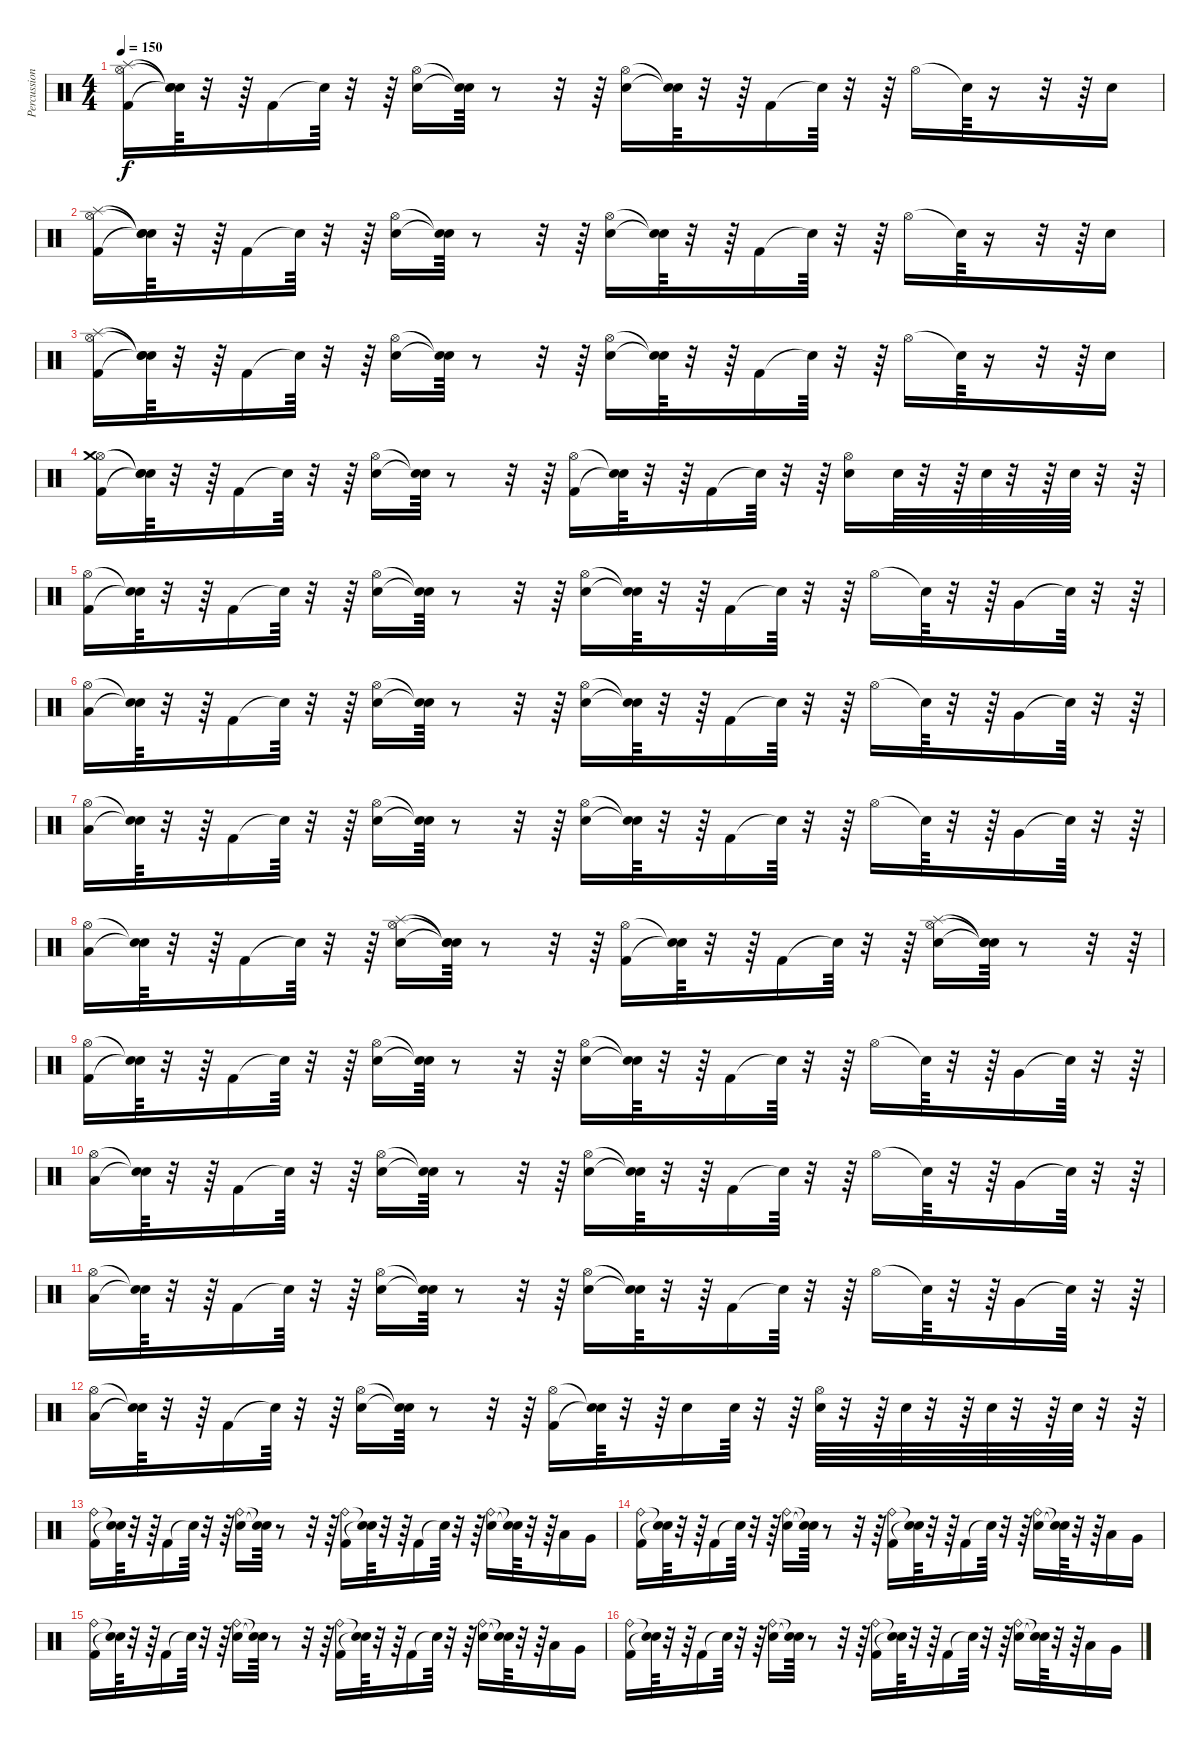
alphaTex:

\track ("Percussions" "Percussion") {instrument percussion}
\staff {score}
\articulation defaults
\ts (4 4)
\tempo 150
\clef neutral
\ks c
("Hi-Hat (open)" "Kick (hit) 2" "Splash (hit)").16{dy f} ("Snare (hit)"{t} "Snare (hit)"{t} "Snare (hit)"{t}).64 r.32 r.64 "Kick (hit) 2".16 "Snare (hit)"{t}.64 r.32 r.64 ("Hi-Hat (open)" "Electric Snare (hit)").16 ("Snare (hit)"{t} "Snare (hit)"{t}).64 r.8 r.32 r.64 ("Hi-Hat (open)" "Electric Snare (hit)").16 ("Snare (hit)"{t} "Snare (hit)"{t}).64 r.32 r.64 "Kick (hit) 2".16 "Snare (hit)"{t}.64 r.32 r.64 "Hi-Hat (open)".16 "Snare (hit)"{t}.64 r.16 r.32 r.64 "Electric Snare (hit)".16 |
("Hi-Hat (open)" "Kick (hit) 2" "Splash (hit)").16 ("Snare (hit)"{t} "Snare (hit)"{t} "Snare (hit)"{t}).64 r.32 r.64 "Kick (hit) 2".16 "Snare (hit)"{t}.64 r.32 r.64 ("Hi-Hat (open)" "Electric Snare (hit)").16 ("Snare (hit)"{t} "Snare (hit)"{t}).64 r.8 r.32 r.64 ("Hi-Hat (open)" "Electric Snare (hit)").16 ("Snare (hit)"{t} "Snare (hit)"{t}).64 r.32 r.64 "Kick (hit) 2".16 "Snare (hit)"{t}.64 r.32 r.64 "Hi-Hat (open)".16 "Snare (hit)"{t}.64 r.16 r.32 r.64 "Electric Snare (hit)".16 |
("Hi-Hat (open)" "Kick (hit) 2" "Splash (hit)").16 ("Snare (hit)"{t} "Snare (hit)"{t} "Snare (hit)"{t}).64 r.32 r.64 "Kick (hit) 2".16 "Snare (hit)"{t}.64 r.32 r.64 ("Hi-Hat (open)" "Electric Snare (hit)").16 ("Snare (hit)"{t} "Snare (hit)"{t}).64 r.8 r.32 r.64 ("Hi-Hat (open)" "Electric Snare (hit)").16 ("Snare (hit)"{t} "Snare (hit)"{t}).64 r.32 r.64 "Kick (hit) 2".16 "Snare (hit)"{t}.64 r.32 r.64 "Hi-Hat (open)".16 "Snare (hit)"{t}.64 r.16 r.32 r.64 "Electric Snare (hit)".16 |
("Hi-Hat (open)" "Kick (hit) 2" "Crash medium (hit)").16 ("Snare (hit)"{t} "Snare (hit)"{t} "Snare (hit)"{t}).64 r.32 r.64 "Kick (hit) 2".16 "Snare (hit)"{t}.64 r.32 r.64 ("Hi-Hat (open)" "Electric Snare (hit)").16 ("Snare (hit)"{t} "Snare (hit)"{t}).64 r.8 r.32 r.64 ("Hi-Hat (open)" "Kick (hit) 2").16 ("Snare (hit)"{t} "Snare (hit)"{t}).64 r.32 r.64 "Kick (hit) 2".16 "Snare (hit)"{t}.64 r.32 r.64 ("Hi-Hat (open)" "Electric Snare (hit)").16 "Electric Snare (hit)".64 r.32 r.64 "Electric Snare (hit)".64 r.32 r.64 "Electric Snare (hit)".64 r.32 r.64 |
("Hi-Hat (open)" "Kick (hit) 2").16 ("Snare (hit)"{t} "Snare (hit)"{t}).64 r.32 r.64 "Kick (hit) 2".16 "Snare (hit)"{t}.64 r.32 r.64 ("Hi-Hat (open)" "Electric Snare (hit)").16 ("Snare (hit)"{t} "Snare (hit)"{t}).64 r.8 r.32 r.64 ("Hi-Hat (open)" "Electric Snare (hit)").16 ("Snare (hit)"{t} "Snare (hit)"{t}).64 r.32 r.64 "Kick (hit) 2".16 "Snare (hit)"{t}.64 r.32 r.64 "Hi-Hat (open)".16 "Snare (hit)"{t}.64 r.32 r.64 "Very Low Tom (hit)".16 "Snare (hit)"{t}.64 r.32 r.64 |
("Hi-Hat (open)" "Low Floor Tom (hit)").16 ("Snare (hit)"{t} "Snare (hit)"{t}).64 r.32 r.64 "Kick (hit) 2".16 "Snare (hit)"{t}.64 r.32 r.64 ("Hi-Hat (open)" "Electric Snare (hit)").16 ("Snare (hit)"{t} "Snare (hit)"{t}).64 r.8 r.32 r.64 ("Hi-Hat (open)" "Electric Snare (hit)").16 ("Snare (hit)"{t} "Snare (hit)"{t}).64 r.32 r.64 "Kick (hit) 2".16 "Snare (hit)"{t}.64 r.32 r.64 "Hi-Hat (open)".16 "Snare (hit)"{t}.64 r.32 r.64 "Very Low Tom (hit)".16 "Snare (hit)"{t}.64 r.32 r.64 |
("Hi-Hat (open)" "Low Floor Tom (hit)").16 ("Snare (hit)"{t} "Snare (hit)"{t}).64 r.32 r.64 "Kick (hit) 2".16 "Snare (hit)"{t}.64 r.32 r.64 ("Hi-Hat (open)" "Electric Snare (hit)").16 ("Snare (hit)"{t} "Snare (hit)"{t}).64 r.8 r.32 r.64 ("Hi-Hat (open)" "Electric Snare (hit)").16 ("Snare (hit)"{t} "Snare (hit)"{t}).64 r.32 r.64 "Kick (hit) 2".16 "Snare (hit)"{t}.64 r.32 r.64 "Hi-Hat (open)".16 "Snare (hit)"{t}.64 r.32 r.64 "Very Low Tom (hit)".16 "Snare (hit)"{t}.64 r.32 r.64 |
("Hi-Hat (open)" "Low Floor Tom (hit)").16 ("Snare (hit)"{t} "Snare (hit)"{t}).64 r.32 r.64 "Kick (hit) 2".16 "Snare (hit)"{t}.64 r.32 r.64 ("Hi-Hat (open)" "Electric Snare (hit)" "Splash (hit)").16 ("Snare (hit)"{t} "Snare (hit)"{t} "Snare (hit)"{t}).64 r.8 r.32 r.64 ("Hi-Hat (open)" "Kick (hit) 2").16 ("Snare (hit)"{t} "Snare (hit)"{t}).64 r.32 r.64 "Kick (hit) 2".16 "Snare (hit)"{t}.64 r.32 r.64 ("Hi-Hat (open)" "Electric Snare (hit)" "Splash (hit)").16 ("Snare (hit)"{t} "Snare (hit)"{t} "Snare (hit)"{t}).64 r.8 r.32 r.64 |
("Hi-Hat (open)" "Kick (hit) 2").16 ("Snare (hit)"{t} "Snare (hit)"{t}).64 r.32 r.64 "Kick (hit) 2".16 "Snare (hit)"{t}.64 r.32 r.64 ("Hi-Hat (open)" "Electric Snare (hit)").16 ("Snare (hit)"{t} "Snare (hit)"{t}).64 r.8 r.32 r.64 ("Hi-Hat (open)" "Electric Snare (hit)").16 ("Snare (hit)"{t} "Snare (hit)"{t}).64 r.32 r.64 "Kick (hit) 2".16 "Snare (hit)"{t}.64 r.32 r.64 "Hi-Hat (open)".16 "Snare (hit)"{t}.64 r.32 r.64 "Very Low Tom (hit)".16 "Snare (hit)"{t}.64 r.32 r.64 |
("Hi-Hat (open)" "Low Floor Tom (hit)").16 ("Snare (hit)"{t} "Snare (hit)"{t}).64 r.32 r.64 "Kick (hit) 2".16 "Snare (hit)"{t}.64 r.32 r.64 ("Hi-Hat (open)" "Electric Snare (hit)").16 ("Snare (hit)"{t} "Snare (hit)"{t}).64 r.8 r.32 r.64 ("Hi-Hat (open)" "Electric Snare (hit)").16 ("Snare (hit)"{t} "Snare (hit)"{t}).64 r.32 r.64 "Kick (hit) 2".16 "Snare (hit)"{t}.64 r.32 r.64 "Hi-Hat (open)".16 "Snare (hit)"{t}.64 r.32 r.64 "Very Low Tom (hit)".16 "Snare (hit)"{t}.64 r.32 r.64 |
("Hi-Hat (open)" "Low Floor Tom (hit)").16 ("Snare (hit)"{t} "Snare (hit)"{t}).64 r.32 r.64 "Kick (hit) 2".16 "Snare (hit)"{t}.64 r.32 r.64 ("Hi-Hat (open)" "Electric Snare (hit)").16 ("Snare (hit)"{t} "Snare (hit)"{t}).64 r.8 r.32 r.64 ("Hi-Hat (open)" "Electric Snare (hit)").16 ("Snare (hit)"{t} "Snare (hit)"{t}).64 r.32 r.64 "Kick (hit) 2".16 "Snare (hit)"{t}.64 r.32 r.64 "Hi-Hat (open)".16 "Snare (hit)"{t}.64 r.32 r.64 "Very Low Tom (hit)".16 "Snare (hit)"{t}.64 r.32 r.64 |
("Hi-Hat (open)" "Low Floor Tom (hit)").16 ("Snare (hit)"{t} "Snare (hit)"{t}).64 r.32 r.64 "Kick (hit) 2".16 "Snare (hit)"{t}.64 r.32 r.64 ("Hi-Hat (open)" "Electric Snare (hit)").16 ("Snare (hit)"{t} "Snare (hit)"{t}).64 r.8 r.32 r.64 ("Hi-Hat (open)" "Kick (hit) 2").16 ("Snare (hit)"{t} "Snare (hit)"{t}).64 r.32 r.64 "Electric Snare (hit)".16 "Electric Snare (hit)".64 r.32 r.64 ("Hi-Hat (open)" "Electric Snare (hit)").64 r.32 r.64 "Electric Snare (hit)".64 r.32 r.64 "Electric Snare (hit)".64 r.32 r.64 "Electric Snare (hit)".64 r.32 r.64 |
("Ride (bell)" "Kick (hit) 2").16 ("Snare (hit)"{t} "Snare (hit)"{t}).64 r.32 r.64 "Kick (hit) 2".16 "Snare (hit)"{t}.64 r.32 r.64 ("Ride (bell)" "Electric Snare (hit)").16 ("Snare (hit)"{t} "Snare (hit)"{t}).64 r.8 r.32 r.64 ("Ride (bell)" "Kick (hit) 2").16 ("Snare (hit)"{t} "Snare (hit)"{t}).64 r.32 r.64 "Kick (hit) 2".16 "Snare (hit)"{t}.64 r.32 r.64 ("Ride (bell)" "Electric Snare (hit)").16 ("Snare (hit)"{t} "Snare (hit)"{t}).64 r.32 r.64 "Low Tom (hit)".16 "Very Low Tom (hit)".16 |
("Ride (bell)" "Kick (hit) 2").16 ("Snare (hit)"{t} "Snare (hit)"{t}).64 r.32 r.64 "Kick (hit) 2".16 "Snare (hit)"{t}.64 r.32 r.64 ("Ride (bell)" "Electric Snare (hit)").16 ("Snare (hit)"{t} "Snare (hit)"{t}).64 r.8 r.32 r.64 ("Ride (bell)" "Kick (hit) 2").16 ("Snare (hit)"{t} "Snare (hit)"{t}).64 r.32 r.64 "Kick (hit) 2".16 "Snare (hit)"{t}.64 r.32 r.64 ("Ride (bell)" "Electric Snare (hit)").16 ("Snare (hit)"{t} "Snare (hit)"{t}).64 r.32 r.64 "Low Tom (hit)".16 "Very Low Tom (hit)".16 |
("Ride (bell)" "Kick (hit) 2").16 ("Snare (hit)"{t} "Snare (hit)"{t}).64 r.32 r.64 "Kick (hit) 2".16 "Snare (hit)"{t}.64 r.32 r.64 ("Ride (bell)" "Electric Snare (hit)").16 ("Snare (hit)"{t} "Snare (hit)"{t}).64 r.8 r.32 r.64 ("Ride (bell)" "Kick (hit) 2").16 ("Snare (hit)"{t} "Snare (hit)"{t}).64 r.32 r.64 "Kick (hit) 2".16 "Snare (hit)"{t}.64 r.32 r.64 ("Ride (bell)" "Electric Snare (hit)").16 ("Snare (hit)"{t} "Snare (hit)"{t}).64 r.32 r.64 "Low Tom (hit)".16 "Very Low Tom (hit)".16 |
("Ride (bell)" "Kick (hit) 2").16 ("Snare (hit)"{t} "Snare (hit)"{t}).64 r.32 r.64 "Kick (hit) 2".16 "Snare (hit)"{t}.64 r.32 r.64 ("Ride (bell)" "Electric Snare (hit)").16 ("Snare (hit)"{t} "Snare (hit)"{t}).64 r.8 r.32 r.64 ("Ride (bell)" "Kick (hit) 2").16 ("Snare (hit)"{t} "Snare (hit)"{t}).64 r.32 r.64 "Kick (hit) 2".16 "Snare (hit)"{t}.64 r.32 r.64 ("Ride (bell)" "Electric Snare (hit)").16 ("Snare (hit)"{t} "Snare (hit)"{t}).64 r.32 r.64 "Low Tom (hit)".16 "Very Low Tom (hit)".16
